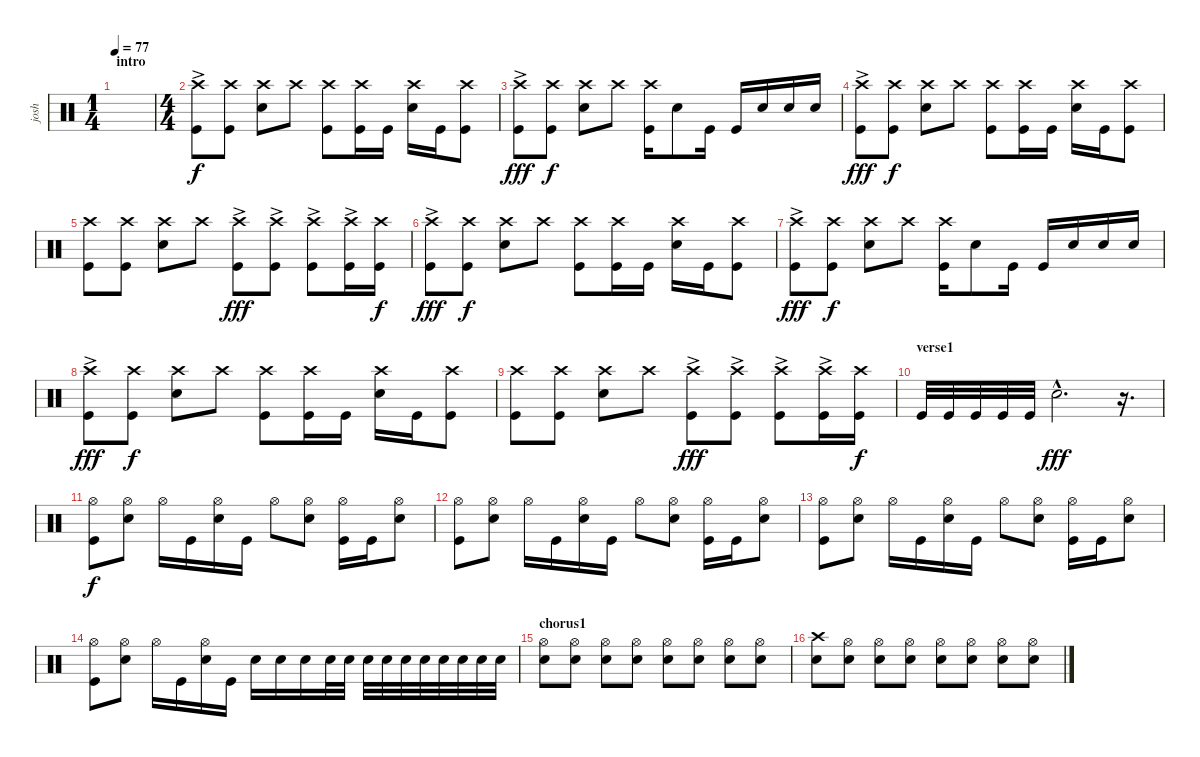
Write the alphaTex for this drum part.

\track ("josh" "josh") {instrument percussion}
\staff {score}
\articulation defaults
\ts (1 4)
\section ("" "intro")
\tempo 77
\clef neutral
\ks c
|
\ts (4 4)
("Crash high (hit)"{ac} "Kick (hit)").8 ("Crash high (hit)" "Kick (hit)").8{dy f} ("Crash high (hit)" "Snare (hit) 2").8 "Crash high (hit)".8 ("Crash high (hit)" "Kick (hit)").8 ("Crash high (hit)" "Kick (hit)").16 "Kick (hit)".16 ("Crash high (hit)" "Snare (hit) 2").16 "Kick (hit)".16 ("Crash high (hit)" "Kick (hit)").8 |
("Crash high (hit)"{ac} "Kick (hit)").8{dy fff} ("Crash high (hit)" "Kick (hit)").8{dy f} ("Crash high (hit)" "Snare (hit) 2").8 "Crash high (hit)".8 ("Crash high (hit)" "Kick (hit)").16 "Snare (hit) 2".8 "Kick (hit)".16 "Kick (hit)".16 "Snare (hit) 2".16 "Snare (hit) 2".16 "Snare (hit) 2".16 |
("Crash high (hit)"{ac} "Kick (hit)").8{dy fff} ("Crash high (hit)" "Kick (hit)").8{dy f} ("Crash high (hit)" "Snare (hit) 2").8 "Crash high (hit)".8 ("Crash high (hit)" "Kick (hit)").8 ("Crash high (hit)" "Kick (hit)").16 "Kick (hit)".16 ("Crash high (hit)" "Snare (hit) 2").16 "Kick (hit)".16 ("Crash high (hit)" "Kick (hit)").8 |
("Crash high (hit)" "Kick (hit)").8 ("Crash high (hit)" "Kick (hit)").8 ("Crash high (hit)" "Snare (hit) 2").8 "Crash high (hit)".8 ("Crash high (hit)"{ac} "Kick (hit)").8{dy fff} ("Crash high (hit)"{ac} "Kick (hit)").8 ("Crash high (hit)"{ac} "Kick (hit)").8 ("Crash high (hit)"{ac} "Kick (hit)").16 ("Crash high (hit)" "Kick (hit)").16{dy f} |
("Crash high (hit)"{ac} "Kick (hit)").8{dy fff} ("Crash high (hit)" "Kick (hit)").8{dy f} ("Crash high (hit)" "Snare (hit) 2").8 "Crash high (hit)".8 ("Crash high (hit)" "Kick (hit)").8 ("Crash high (hit)" "Kick (hit)").16 "Kick (hit)".16 ("Crash high (hit)" "Snare (hit) 2").16 "Kick (hit)".16 ("Crash high (hit)" "Kick (hit)").8 |
("Crash high (hit)"{ac} "Kick (hit)").8{dy fff} ("Crash high (hit)" "Kick (hit)").8{dy f} ("Crash high (hit)" "Snare (hit) 2").8 "Crash high (hit)".8 ("Crash high (hit)" "Kick (hit)").16 "Snare (hit) 2".8 "Kick (hit)".16 "Kick (hit)".16 "Snare (hit) 2".16 "Snare (hit) 2".16 "Snare (hit) 2".16 |
("Crash high (hit)"{ac} "Kick (hit)").8{dy fff} ("Crash high (hit)" "Kick (hit)").8{dy f} ("Crash high (hit)" "Snare (hit) 2").8 "Crash high (hit)".8 ("Crash high (hit)" "Kick (hit)").8 ("Crash high (hit)" "Kick (hit)").16 "Kick (hit)".16 ("Crash high (hit)" "Snare (hit) 2").16 "Kick (hit)".16 ("Crash high (hit)" "Kick (hit)").8 |
("Crash high (hit)" "Kick (hit)").8 ("Crash high (hit)" "Kick (hit)").8 ("Crash high (hit)" "Snare (hit) 2").8 "Crash high (hit)".8 ("Crash high (hit)"{ac} "Kick (hit)").8{dy fff} ("Crash high (hit)"{ac} "Kick (hit)").8 ("Crash high (hit)"{ac} "Kick (hit)").8 ("Crash high (hit)"{ac} "Kick (hit)").16 ("Crash high (hit)" "Kick (hit)").16{dy f} |
\section ("" "verse1")
"Kick (hit)".32 "Kick (hit)".32 "Kick (hit)".32 "Kick (hit)".32 "Kick (hit)".32 "Electric Snare (hit)"{hac}.2{d dy fff} r.16{d} |
("Hi-Hat (open)" "Kick (hit)").8{dy f} ("Hi-Hat (open)" "Snare (hit) 2").8 "Hi-Hat (open)".16 "Kick (hit)".16 ("Hi-Hat (open)" "Snare (hit) 2").16 "Kick (hit)".16 "Hi-Hat (open)".8 ("Hi-Hat (open)" "Snare (hit) 2").8 ("Hi-Hat (open)" "Kick (hit)").16 "Kick (hit)".16 ("Hi-Hat (open)" "Snare (hit) 2").8 |
("Hi-Hat (open)" "Kick (hit)").8 ("Hi-Hat (open)" "Snare (hit) 2").8 "Hi-Hat (open)".16 "Kick (hit)".16 ("Hi-Hat (open)" "Snare (hit) 2").16 "Kick (hit)".16 "Hi-Hat (open)".8 ("Hi-Hat (open)" "Snare (hit) 2").8 ("Hi-Hat (open)" "Kick (hit)").16 "Kick (hit)".16 ("Hi-Hat (open)" "Snare (hit) 2").8 |
("Hi-Hat (open)" "Kick (hit)").8 ("Hi-Hat (open)" "Snare (hit) 2").8 "Hi-Hat (open)".16 "Kick (hit)".16 ("Hi-Hat (open)" "Snare (hit) 2").16 "Kick (hit)".16 "Hi-Hat (open)".8 ("Hi-Hat (open)" "Snare (hit) 2").8 ("Hi-Hat (open)" "Kick (hit)").16 "Kick (hit)".16 ("Hi-Hat (open)" "Snare (hit) 2").8 |
("Hi-Hat (open)" "Kick (hit)").8 ("Hi-Hat (open)" "Snare (hit) 2").8 "Hi-Hat (open)".16 "Kick (hit)".16 ("Hi-Hat (open)" "Snare (hit) 2").16 "Kick (hit)".16 "Snare (hit) 2".16 "Snare (hit) 2".16 "Snare (hit) 2".16 "Snare (hit) 2".32 "Snare (hit) 2".32 "Snare (hit) 2".32 "Snare (hit) 2".32 "Snare (hit) 2".32 "Snare (hit) 2".32 "Snare (hit) 2".32 "Snare (hit) 2".32 "Snare (hit) 2".32 "Snare (hit) 2".32 |
\section ("" "chorus1")
("Hi-Hat (open)" "Snare (hit) 2").8 ("Hi-Hat (open)" "Snare (hit) 2").8 ("Hi-Hat (open)" "Snare (hit) 2").8 ("Hi-Hat (open)" "Snare (hit) 2").8 ("Hi-Hat (open)" "Snare (hit) 2").8 ("Hi-Hat (open)" "Snare (hit) 2").8 ("Hi-Hat (open)" "Snare (hit) 2").8 ("Hi-Hat (open)" "Snare (hit) 2").8 |
("Crash high (hit)" "Snare (hit) 2").8 ("Hi-Hat (open)" "Snare (hit) 2").8 ("Hi-Hat (open)" "Snare (hit) 2").8 ("Hi-Hat (open)" "Snare (hit) 2").8 ("Hi-Hat (open)" "Snare (hit) 2").8 ("Hi-Hat (open)" "Snare (hit) 2").8 ("Hi-Hat (open)" "Snare (hit) 2").8 ("Hi-Hat (open)" "Snare (hit) 2").8
